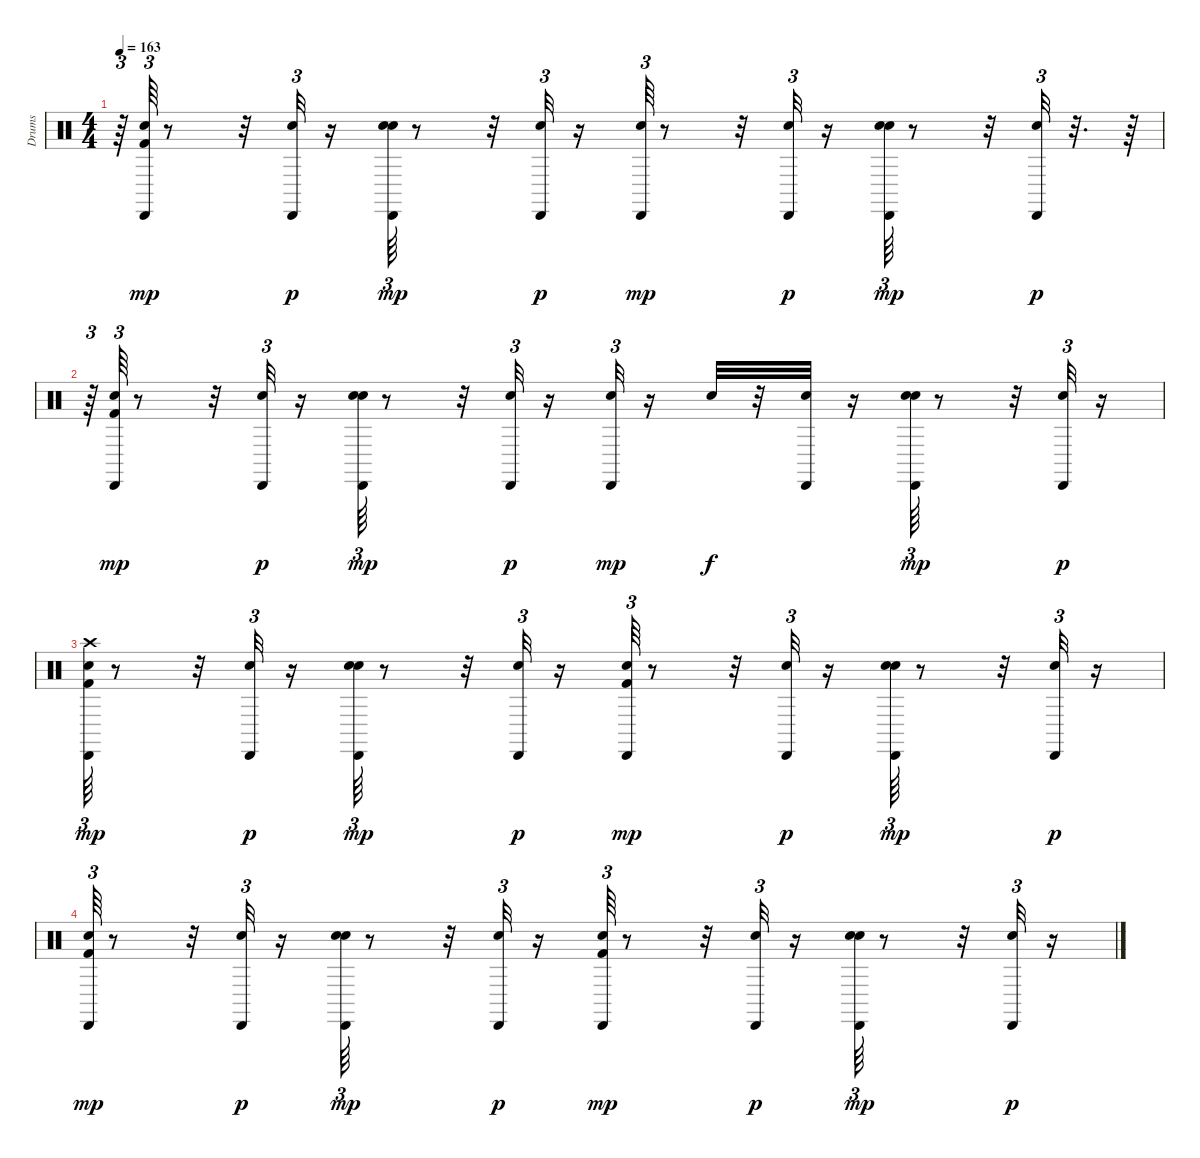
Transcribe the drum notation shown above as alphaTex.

\track ("Drums               " "Drums     ") {instrument percussion}
\staff {score}
\articulation defaults
\ts (4 4)
\tempo 163
\clef neutral
\ks c
r.64{tu (3 2) dy p} ("Kick (hit) 2" "Snare (hit) 2" "Cabasa (hit)").64{tu (3 2) dy mp} r.8 r.32 ("Snare (hit) 2" "Cabasa (hit)").32{tu (3 2) dy p} r.16 ("Snare (hit) 2" "Hand Clap (hit)" "Cabasa (hit)").64{tu (3 2) dy mp} r.8 r.32 ("Snare (hit) 2" "Cabasa (hit)").32{tu (3 2) dy p} r.16 ("Snare (hit) 2" "Cabasa (hit)").64{tu (3 2) dy mp} r.8 r.32 ("Snare (hit) 2" "Cabasa (hit)").32{tu (3 2) dy p} r.16 ("Snare (hit) 2" "Hand Clap (hit)" "Cabasa (hit)").64{tu (3 2) dy mp} r.8 r.32 ("Snare (hit) 2" "Cabasa (hit)").32{tu (3 2) dy p} r.32{d} r.64 |
r.64{tu (3 2)} ("Kick (hit) 2" "Snare (hit) 2" "Cabasa (hit)").64{tu (3 2) dy mp} r.8 r.32 ("Snare (hit) 2" "Cabasa (hit)").32{tu (3 2) dy p} r.16 ("Snare (hit) 2" "Hand Clap (hit)" "Cabasa (hit)").64{tu (3 2) dy mp} r.8 r.32 ("Snare (hit) 2" "Cabasa (hit)").32{tu (3 2) dy p} r.16 ("Snare (hit) 2" "Cabasa (hit)").32{tu (3 2) dy mp} r.16 "Snare (hit) 2".32{dy f} r.32 ("Snare (hit) 2" "Cabasa (hit)").32 r.16 ("Snare (hit) 2" "Hand Clap (hit)" "Cabasa (hit)").64{tu (3 2) dy mp} r.8 r.32 ("Snare (hit) 2" "Cabasa (hit)").32{tu (3 2) dy p} r.16 |
("Kick (hit) 2" "Snare (hit) 2" "Crash high (hit)" "Cabasa (hit)").64{tu (3 2) dy mp} r.8 r.32 ("Snare (hit) 2" "Cabasa (hit)").32{tu (3 2) dy p} r.16 ("Snare (hit) 2" "Hand Clap (hit)" "Cabasa (hit)").64{tu (3 2) dy mp} r.8 r.32 ("Snare (hit) 2" "Cabasa (hit)").32{tu (3 2) dy p} r.16 ("Kick (hit) 2" "Snare (hit) 2" "Cabasa (hit)").64{tu (3 2) dy mp} r.8 r.32 ("Snare (hit) 2" "Cabasa (hit)").32{tu (3 2) dy p} r.16 ("Snare (hit) 2" "Hand Clap (hit)" "Cabasa (hit)").64{tu (3 2) dy mp} r.8 r.32 ("Snare (hit) 2" "Cabasa (hit)").32{tu (3 2) dy p} r.16 |
("Kick (hit) 2" "Snare (hit) 2" "Cabasa (hit)").64{tu (3 2) dy mp} r.8 r.32 ("Snare (hit) 2" "Cabasa (hit)").32{tu (3 2) dy p} r.16 ("Snare (hit) 2" "Hand Clap (hit)" "Cabasa (hit)").64{tu (3 2) dy mp} r.8 r.32 ("Snare (hit) 2" "Cabasa (hit)").32{tu (3 2) dy p} r.16 ("Kick (hit) 2" "Snare (hit) 2" "Cabasa (hit)").64{tu (3 2) dy mp} r.8 r.32 ("Snare (hit) 2" "Cabasa (hit)").32{tu (3 2) dy p} r.16 ("Snare (hit) 2" "Hand Clap (hit)" "Cabasa (hit)").64{tu (3 2) dy mp} r.8 r.32 ("Snare (hit) 2" "Cabasa (hit)").32{tu (3 2) dy p} r.16
